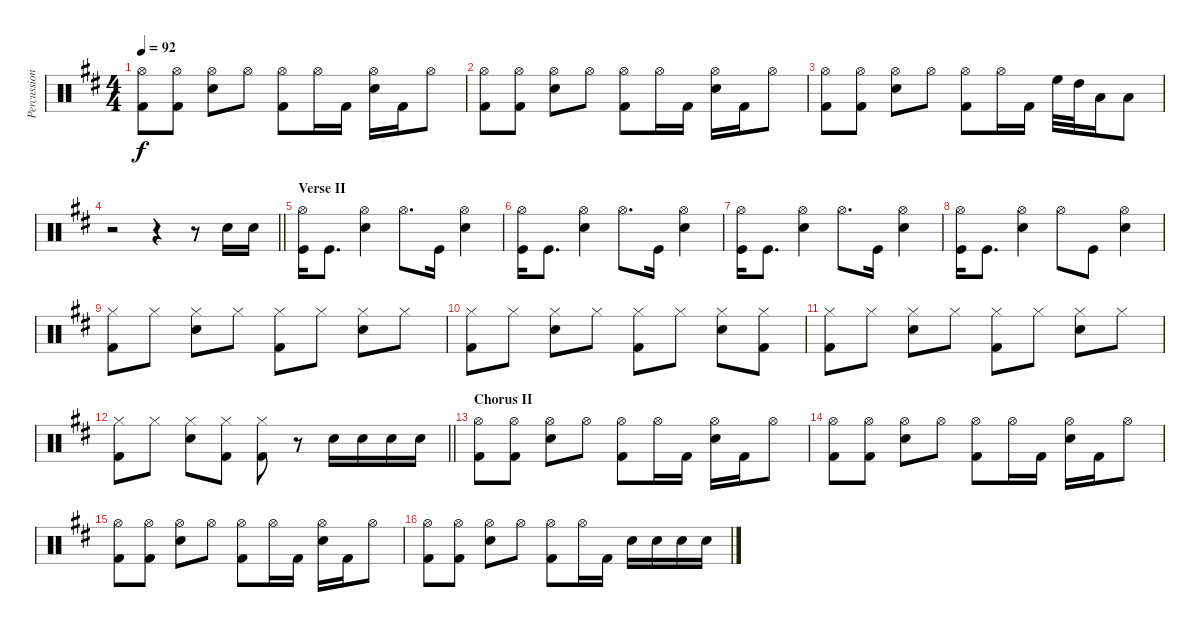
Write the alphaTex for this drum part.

\track ("Percussion" "Percussion") {instrument percussion}
\staff {score}
\articulation defaults
\ts (4 4)
\tempo 92
\clef neutral
\ks d
("Hi-Hat (open)" "Kick (hit) 2").8{dy f} ("Hi-Hat (open)" "Kick (hit) 2").8 ("Hi-Hat (open)" "Snare (hit) 2").8 "Hi-Hat (open)".8 ("Hi-Hat (open)" "Kick (hit) 2").8 "Hi-Hat (open)".16 "Kick (hit) 2".16 ("Hi-Hat (open)" "Snare (hit) 2").16 "Kick (hit) 2".16 "Hi-Hat (open)".8 |
("Hi-Hat (open)" "Kick (hit) 2").8 ("Hi-Hat (open)" "Kick (hit) 2").8 ("Hi-Hat (open)" "Snare (hit) 2").8 "Hi-Hat (open)".8 ("Hi-Hat (open)" "Kick (hit) 2").8 "Hi-Hat (open)".16 "Kick (hit) 2".16 ("Hi-Hat (open)" "Snare (hit) 2").16 "Kick (hit) 2".16 "Hi-Hat (open)".8 |
("Hi-Hat (open)" "Kick (hit) 2").8 ("Hi-Hat (open)" "Kick (hit) 2").8 ("Hi-Hat (open)" "Snare (hit) 2").8 "Hi-Hat (open)".8 ("Hi-Hat (open)" "Kick (hit) 2").8 "Hi-Hat (open)".16 "Kick (hit) 2".16 "High Floor Tom (hit)".32 "High Tom (hit)".32 "Low Tom (hit)".16 "Low Floor Tom (hit)".8 |
\barLineRight lightlight
r.2 r.4 r.8 "Snare (hit) 2".16 "Snare (hit) 2".16 |
\section ("" "Verse II")
("Hi-Hat (open)" "Kick (hit)").16 "Kick (hit)".8{d} ("Hi-Hat (open)" "Snare (hit) 2").4 "Hi-Hat (open)".8{d} "Kick (hit)".16 ("Hi-Hat (open)" "Snare (hit) 2").4 |
("Hi-Hat (open)" "Kick (hit)").16 "Kick (hit)".8{d} ("Hi-Hat (open)" "Snare (hit) 2").4 "Hi-Hat (open)".8{d} "Kick (hit)".16 ("Hi-Hat (open)" "Snare (hit) 2").4 |
("Hi-Hat (open)" "Kick (hit)").16 "Kick (hit)".8{d} ("Hi-Hat (open)" "Snare (hit) 2").4 "Hi-Hat (open)".8{d} "Kick (hit)".16 ("Hi-Hat (open)" "Snare (hit) 2").4 |
("Hi-Hat (open)" "Kick (hit)").16 "Kick (hit)".8{d} ("Hi-Hat (open)" "Snare (hit) 2").4 "Hi-Hat (open)".8 "Kick (hit)".8 ("Hi-Hat (open)" "Snare (hit) 2").4 |
("Hi-Hat (closed)" "Kick (hit) 2").8 "Hi-Hat (closed)".8 ("Hi-Hat (closed)" "Snare (hit) 2").8 "Hi-Hat (closed)".8 ("Hi-Hat (closed)" "Kick (hit) 2").8 "Hi-Hat (closed)".8 ("Hi-Hat (closed)" "Snare (hit) 2").8 "Hi-Hat (closed)".8 |
("Hi-Hat (closed)" "Kick (hit) 2").8 "Hi-Hat (closed)".8 ("Hi-Hat (closed)" "Snare (hit) 2").8 "Hi-Hat (closed)".8 ("Hi-Hat (closed)" "Kick (hit) 2").8 "Hi-Hat (closed)".8 ("Hi-Hat (closed)" "Snare (hit) 2").8 ("Hi-Hat (closed)" "Kick (hit) 2").8 |
("Hi-Hat (closed)" "Kick (hit) 2").8 "Hi-Hat (closed)".8 ("Hi-Hat (closed)" "Snare (hit) 2").8 "Hi-Hat (closed)".8 ("Hi-Hat (closed)" "Kick (hit) 2").8 "Hi-Hat (closed)".8 ("Hi-Hat (closed)" "Snare (hit) 2").8 "Hi-Hat (closed)".8 |
\barLineRight lightlight
("Hi-Hat (closed)" "Kick (hit) 2").8 "Hi-Hat (closed)".8 ("Hi-Hat (closed)" "Snare (hit) 2").8 ("Hi-Hat (closed)" "Kick (hit) 2").8 ("Hi-Hat (closed)" "Kick (hit) 2").8 r.8 "Snare (hit) 2".16 "Snare (hit) 2".16 "Snare (hit) 2".16 "Snare (hit) 2".16 |
\section ("" "Chorus II")
("Hi-Hat (open)" "Kick (hit) 2").8 ("Hi-Hat (open)" "Kick (hit) 2").8 ("Hi-Hat (open)" "Snare (hit) 2").8 "Hi-Hat (open)".8 ("Hi-Hat (open)" "Kick (hit) 2").8 "Hi-Hat (open)".16 "Kick (hit) 2".16 ("Hi-Hat (open)" "Snare (hit) 2").16 "Kick (hit) 2".16 "Hi-Hat (open)".8 |
("Hi-Hat (open)" "Kick (hit) 2").8 ("Hi-Hat (open)" "Kick (hit) 2").8 ("Hi-Hat (open)" "Snare (hit) 2").8 "Hi-Hat (open)".8 ("Hi-Hat (open)" "Kick (hit) 2").8 "Hi-Hat (open)".16 "Kick (hit) 2".16 ("Hi-Hat (open)" "Snare (hit) 2").16 "Kick (hit) 2".16 "Hi-Hat (open)".8 |
("Hi-Hat (open)" "Kick (hit) 2").8 ("Hi-Hat (open)" "Kick (hit) 2").8 ("Hi-Hat (open)" "Snare (hit) 2").8 "Hi-Hat (open)".8 ("Hi-Hat (open)" "Kick (hit) 2").8 "Hi-Hat (open)".16 "Kick (hit) 2".16 ("Hi-Hat (open)" "Snare (hit) 2").16 "Kick (hit) 2".16 "Hi-Hat (open)".8 |
("Hi-Hat (open)" "Kick (hit) 2").8 ("Hi-Hat (open)" "Kick (hit) 2").8 ("Hi-Hat (open)" "Snare (hit) 2").8 "Hi-Hat (open)".8 ("Hi-Hat (open)" "Kick (hit) 2").8 "Hi-Hat (open)".16 "Kick (hit) 2".16 "Snare (hit) 2".16 "Snare (hit) 2".16 "Snare (hit) 2".16 "Snare (hit) 2".16
